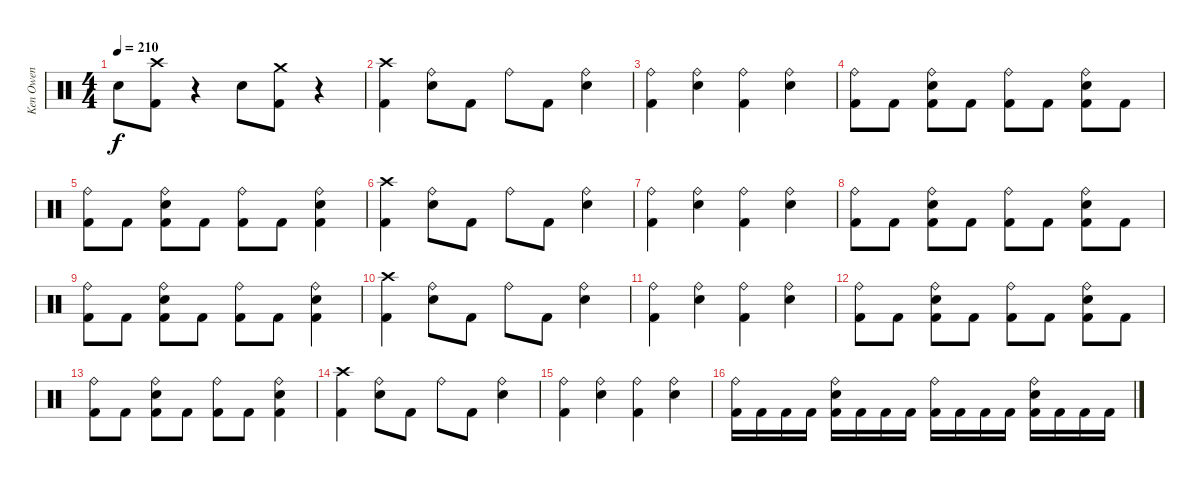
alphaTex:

\track ("Ken Owen" "Ken Owen") {instrument percussion}
\staff {score}
\articulation defaults
\ts (4 4)
\tempo 210
\clef neutral
\ks c "Snare (hit) 2".8{dy f}
("Crash high (hit)" "Kick (hit) 2").8 r.4 "Snare (hit) 2".8 ("Crash medium (hit)" "Kick (hit) 2").8 r.4 |
("Crash high (hit)" "Kick (hit) 2").4 ("Ride (bell)" "Snare (hit) 2").8 "Kick (hit) 2".8 "Ride (bell)".8 "Kick (hit) 2".8 ("Ride (bell)" "Snare (hit) 2").4 |
("Ride (bell)" "Kick (hit) 2").4 ("Ride (bell)" "Snare (hit) 2").4 ("Ride (bell)" "Kick (hit) 2").4 ("Ride (bell)" "Snare (hit) 2").4 |
("Ride (bell)" "Kick (hit) 2").8 "Kick (hit) 2".8 ("Snare (hit) 2" "Ride (bell)" "Kick (hit) 2").8 "Kick (hit) 2".8 ("Ride (bell)" "Kick (hit) 2").8 "Kick (hit) 2".8 ("Snare (hit) 2" "Ride (bell)" "Kick (hit) 2").8 "Kick (hit) 2".8 |
("Ride (bell)" "Kick (hit) 2").8 "Kick (hit) 2".8 ("Snare (hit) 2" "Ride (bell)" "Kick (hit) 2").8 "Kick (hit) 2".8 ("Ride (bell)" "Kick (hit) 2").8 "Kick (hit) 2".8 ("Snare (hit) 2" "Ride (bell)" "Kick (hit) 2").4 |
("Crash high (hit)" "Kick (hit) 2").4 ("Ride (bell)" "Snare (hit) 2").8 "Kick (hit) 2".8 "Ride (bell)".8 "Kick (hit) 2".8 ("Ride (bell)" "Snare (hit) 2").4 |
("Ride (bell)" "Kick (hit) 2").4 ("Ride (bell)" "Snare (hit) 2").4 ("Ride (bell)" "Kick (hit) 2").4 ("Ride (bell)" "Snare (hit) 2").4 |
("Ride (bell)" "Kick (hit) 2").8 "Kick (hit) 2".8 ("Snare (hit) 2" "Ride (bell)" "Kick (hit) 2").8 "Kick (hit) 2".8 ("Ride (bell)" "Kick (hit) 2").8 "Kick (hit) 2".8 ("Snare (hit) 2" "Ride (bell)" "Kick (hit) 2").8 "Kick (hit) 2".8 |
("Ride (bell)" "Kick (hit) 2").8 "Kick (hit) 2".8 ("Snare (hit) 2" "Ride (bell)" "Kick (hit) 2").8 "Kick (hit) 2".8 ("Ride (bell)" "Kick (hit) 2").8 "Kick (hit) 2".8 ("Snare (hit) 2" "Ride (bell)" "Kick (hit) 2").4 |
("Crash high (hit)" "Kick (hit) 2").4 ("Ride (bell)" "Snare (hit) 2").8 "Kick (hit) 2".8 "Ride (bell)".8 "Kick (hit) 2".8 ("Ride (bell)" "Snare (hit) 2").4 |
("Ride (bell)" "Kick (hit) 2").4 ("Ride (bell)" "Snare (hit) 2").4 ("Ride (bell)" "Kick (hit) 2").4 ("Ride (bell)" "Snare (hit) 2").4 |
("Ride (bell)" "Kick (hit) 2").8 "Kick (hit) 2".8 ("Snare (hit) 2" "Ride (bell)" "Kick (hit) 2").8 "Kick (hit) 2".8 ("Ride (bell)" "Kick (hit) 2").8 "Kick (hit) 2".8 ("Snare (hit) 2" "Ride (bell)" "Kick (hit) 2").8 "Kick (hit) 2".8 |
("Ride (bell)" "Kick (hit) 2").8 "Kick (hit) 2".8 ("Snare (hit) 2" "Ride (bell)" "Kick (hit) 2").8 "Kick (hit) 2".8 ("Ride (bell)" "Kick (hit) 2").8 "Kick (hit) 2".8 ("Snare (hit) 2" "Ride (bell)" "Kick (hit) 2").4 |
("Crash high (hit)" "Kick (hit) 2").4 ("Ride (bell)" "Snare (hit) 2").8 "Kick (hit) 2".8 "Ride (bell)".8 "Kick (hit) 2".8 ("Ride (bell)" "Snare (hit) 2").4 |
("Ride (bell)" "Kick (hit) 2").4 ("Ride (bell)" "Snare (hit) 2").4 ("Ride (bell)" "Kick (hit) 2").4 ("Ride (bell)" "Snare (hit) 2").4 |
("Ride (bell)" "Kick (hit) 2").16 "Kick (hit) 2".16 "Kick (hit) 2".16 "Kick (hit) 2".16 ("Snare (hit) 2" "Ride (bell)" "Kick (hit) 2").16 "Kick (hit) 2".16 "Kick (hit) 2".16 "Kick (hit) 2".16 ("Ride (bell)" "Kick (hit) 2").16 "Kick (hit) 2".16 "Kick (hit) 2".16 "Kick (hit) 2".16 ("Snare (hit) 2" "Ride (bell)" "Kick (hit) 2").16 "Kick (hit) 2".16 "Kick (hit) 2".16 "Kick (hit) 2".16
